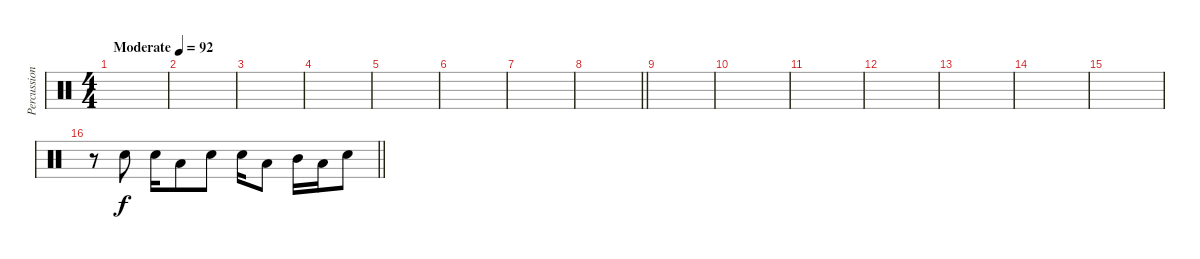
\track ("Percussion" "Percussion") {instrument percussion}
\staff {score}
\articulation defaults
\ts (4 4)
\tempo (92 "Moderate")
\clef neutral
\ks c
|
|
|
|
|
|
|
\barLineRight lightlight
|
\section ("" "")
|
|
|
|
|
|
|
\barLineRight lightlight
r.8 "Electric Snare (hit)".8 "Electric Snare (hit)".16 "Low Tom (hit)".8 "Electric Snare (hit)".8 "Electric Snare (hit)".16 "Low Tom (hit)".8 "Mid Tom (hit)".16 "Low Tom (hit)".16 "Electric Snare (hit)".8
